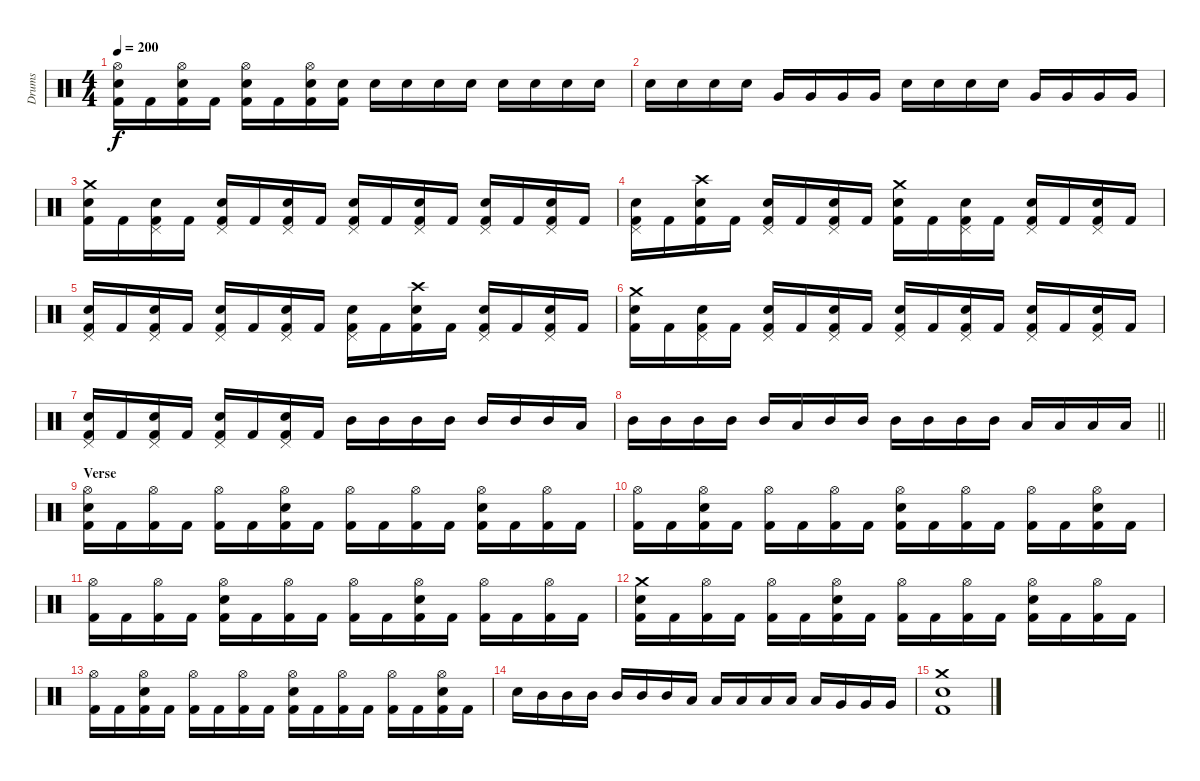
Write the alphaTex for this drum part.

\track ("Drums" "Drums") {instrument percussion}
\staff {score}
\articulation defaults
\ts (4 4)
\tempo 200
\clef neutral
\ks c
("Hi-Hat (open)" "Electric Snare (hit)" "Kick (hit) 2").16{dy f} "Kick (hit) 2".16 ("Hi-Hat (open)" "Electric Snare (hit)" "Kick (hit) 2").16 "Kick (hit) 2".16 ("Hi-Hat (open)" "Electric Snare (hit)" "Kick (hit) 2").16 "Kick (hit) 2".16 ("Hi-Hat (open)" "Electric Snare (hit)" "Kick (hit) 2").16 ("Electric Snare (hit)" "Kick (hit) 2").16 "Electric Snare (hit)".16 "Electric Snare (hit)".16 "Electric Snare (hit)".16 "Electric Snare (hit)".16 "Electric Snare (hit)".16 "Electric Snare (hit)".16 "Electric Snare (hit)".16 "Electric Snare (hit)".16 |
"Electric Snare (hit)".16 "Electric Snare (hit)".16 "Electric Snare (hit)".16 "Electric Snare (hit)".16 "Very Low Tom (hit)".16 "Very Low Tom (hit)".16 "Very Low Tom (hit)".16 "Very Low Tom (hit)".16 "Electric Snare (hit)".16 "Electric Snare (hit)".16 "Electric Snare (hit)".16 "Electric Snare (hit)".16 "Very Low Tom (hit)".16 "Very Low Tom (hit)".16 "Very Low Tom (hit)".16 "Very Low Tom (hit)".16 |
("Crash medium (hit)" "Electric Snare (hit)" "Kick (hit) 2").16 "Kick (hit) 2".16 ("Pedal Hi-Hat (hit)" "Electric Snare (hit)" "Kick (hit) 2").16 "Kick (hit) 2".16 ("Pedal Hi-Hat (hit)" "Electric Snare (hit)" "Kick (hit) 2").16 "Kick (hit) 2".16 ("Pedal Hi-Hat (hit)" "Electric Snare (hit)" "Kick (hit) 2").16 "Kick (hit) 2".16 ("Pedal Hi-Hat (hit)" "Electric Snare (hit)" "Kick (hit) 2").16 "Kick (hit) 2".16 ("Pedal Hi-Hat (hit)" "Electric Snare (hit)" "Kick (hit) 2").16 "Kick (hit) 2".16 ("Pedal Hi-Hat (hit)" "Electric Snare (hit)" "Kick (hit) 2").16 "Kick (hit) 2".16 ("Pedal Hi-Hat (hit)" "Electric Snare (hit)" "Kick (hit) 2").16 "Kick (hit) 2".16 |
("Pedal Hi-Hat (hit)" "Electric Snare (hit)" "Kick (hit) 2").16 "Kick (hit) 2".16 ("Crash high (hit)" "Electric Snare (hit)" "Kick (hit) 2").16 "Kick (hit) 2".16 ("Pedal Hi-Hat (hit)" "Electric Snare (hit)" "Kick (hit) 2").16 "Kick (hit) 2".16 ("Pedal Hi-Hat (hit)" "Electric Snare (hit)" "Kick (hit) 2").16 "Kick (hit) 2".16 ("Crash medium (hit)" "Electric Snare (hit)" "Kick (hit) 2").16 "Kick (hit) 2".16 ("Pedal Hi-Hat (hit)" "Electric Snare (hit)" "Kick (hit) 2").16 "Kick (hit) 2".16 ("Pedal Hi-Hat (hit)" "Electric Snare (hit)" "Kick (hit) 2").16 "Kick (hit) 2".16 ("Pedal Hi-Hat (hit)" "Electric Snare (hit)" "Kick (hit) 2").16 "Kick (hit) 2".16 |
("Pedal Hi-Hat (hit)" "Electric Snare (hit)" "Kick (hit) 2").16 "Kick (hit) 2".16 ("Pedal Hi-Hat (hit)" "Electric Snare (hit)" "Kick (hit) 2").16 "Kick (hit) 2".16 ("Pedal Hi-Hat (hit)" "Electric Snare (hit)" "Kick (hit) 2").16 "Kick (hit) 2".16 ("Pedal Hi-Hat (hit)" "Electric Snare (hit)" "Kick (hit) 2").16 "Kick (hit) 2".16 ("Pedal Hi-Hat (hit)" "Electric Snare (hit)" "Kick (hit) 2").16 "Kick (hit) 2".16 ("Crash high (hit)" "Electric Snare (hit)" "Kick (hit) 2").16 "Kick (hit) 2".16 ("Pedal Hi-Hat (hit)" "Electric Snare (hit)" "Kick (hit) 2").16 "Kick (hit) 2".16 ("Pedal Hi-Hat (hit)" "Electric Snare (hit)" "Kick (hit) 2").16 "Kick (hit) 2".16 |
("Crash medium (hit)" "Electric Snare (hit)" "Kick (hit) 2").16 "Kick (hit) 2".16 ("Pedal Hi-Hat (hit)" "Electric Snare (hit)" "Kick (hit) 2").16 "Kick (hit) 2".16 ("Pedal Hi-Hat (hit)" "Electric Snare (hit)" "Kick (hit) 2").16 "Kick (hit) 2".16 ("Pedal Hi-Hat (hit)" "Electric Snare (hit)" "Kick (hit) 2").16 "Kick (hit) 2".16 ("Pedal Hi-Hat (hit)" "Electric Snare (hit)" "Kick (hit) 2").16 "Kick (hit) 2".16 ("Pedal Hi-Hat (hit)" "Electric Snare (hit)" "Kick (hit) 2").16 "Kick (hit) 2".16 ("Pedal Hi-Hat (hit)" "Electric Snare (hit)" "Kick (hit) 2").16 "Kick (hit) 2".16 ("Pedal Hi-Hat (hit)" "Electric Snare (hit)" "Kick (hit) 2").16 "Kick (hit) 2".16 |
("Pedal Hi-Hat (hit)" "Electric Snare (hit)" "Kick (hit) 2").16 "Kick (hit) 2".16 ("Pedal Hi-Hat (hit)" "Electric Snare (hit)" "Kick (hit) 2").16 "Kick (hit) 2".16 ("Pedal Hi-Hat (hit)" "Electric Snare (hit)" "Kick (hit) 2").16 "Kick (hit) 2".16 ("Pedal Hi-Hat (hit)" "Electric Snare (hit)" "Kick (hit) 2").16 "Kick (hit) 2".16 "Mid Tom (hit)".16 "Mid Tom (hit)".16 "Mid Tom (hit)".16 "Mid Tom (hit)".16 "Mid Tom (hit)".16 "Mid Tom (hit)".16 "Mid Tom (hit)".16 "Low Tom (hit)".16 |
\barLineRight lightlight "Mid Tom (hit)".16 "Mid Tom (hit)".16 "Mid Tom (hit)".16 "Mid Tom (hit)".16 "Mid Tom (hit)".16 "Low Tom (hit)".16 "Mid Tom (hit)".16 "Mid Tom (hit)".16 "Mid Tom (hit)".16 "Mid Tom (hit)".16 "Mid Tom (hit)".16 "Mid Tom (hit)".16 "Low Tom (hit)".16 "Low Tom (hit)".16 "Low Tom (hit)".16 "Low Tom (hit)".16
|
\section ("" "Verse")
("Hi-Hat (open)" "Electric Snare (hit)" "Kick (hit) 2").16 "Kick (hit) 2".16 ("Hi-Hat (open)" "Kick (hit) 2").16 "Kick (hit) 2".16 ("Hi-Hat (open)" "Kick (hit) 2").16 "Kick (hit) 2".16 ("Hi-Hat (open)" "Electric Snare (hit)" "Kick (hit) 2").16 "Kick (hit) 2".16 ("Hi-Hat (open)" "Kick (hit) 2").16 "Kick (hit) 2".16 ("Hi-Hat (open)" "Kick (hit) 2").16 "Kick (hit) 2".16 ("Hi-Hat (open)" "Electric Snare (hit)" "Kick (hit) 2").16 "Kick (hit) 2".16 ("Hi-Hat (open)" "Kick (hit) 2").16 "Kick (hit) 2".16 |
("Hi-Hat (open)" "Kick (hit) 2").16 "Kick (hit) 2".16 ("Hi-Hat (open)" "Electric Snare (hit)" "Kick (hit) 2").16 "Kick (hit) 2".16 ("Hi-Hat (open)" "Kick (hit) 2").16 "Kick (hit) 2".16 ("Hi-Hat (open)" "Kick (hit) 2").16 "Kick (hit) 2".16 ("Hi-Hat (open)" "Electric Snare (hit)" "Kick (hit) 2").16 "Kick (hit) 2".16 ("Hi-Hat (open)" "Kick (hit) 2").16 "Kick (hit) 2".16 ("Hi-Hat (open)" "Kick (hit) 2").16 "Kick (hit) 2".16 ("Hi-Hat (open)" "Electric Snare (hit)" "Kick (hit) 2").16 "Kick (hit) 2".16 |
("Hi-Hat (open)" "Kick (hit) 2").16 "Kick (hit) 2".16 ("Hi-Hat (open)" "Kick (hit) 2").16 "Kick (hit) 2".16 ("Hi-Hat (open)" "Electric Snare (hit)" "Kick (hit) 2").16 "Kick (hit) 2".16 ("Hi-Hat (open)" "Kick (hit) 2").16 "Kick (hit) 2".16 ("Hi-Hat (open)" "Kick (hit) 2").16 "Kick (hit) 2".16 ("Hi-Hat (open)" "Electric Snare (hit)" "Kick (hit) 2").16 "Kick (hit) 2".16 ("Hi-Hat (open)" "Kick (hit) 2").16 "Kick (hit) 2".16 ("Hi-Hat (open)" "Kick (hit) 2").16 "Kick (hit) 2".16 |
("Crash medium (hit)" "Electric Snare (hit)" "Kick (hit) 2").16 "Kick (hit) 2".16 ("Hi-Hat (open)" "Kick (hit) 2").16 "Kick (hit) 2".16 ("Hi-Hat (open)" "Kick (hit) 2").16 "Kick (hit) 2".16 ("Hi-Hat (open)" "Electric Snare (hit)" "Kick (hit) 2").16 "Kick (hit) 2".16 ("Hi-Hat (open)" "Kick (hit) 2").16 "Kick (hit) 2".16 ("Hi-Hat (open)" "Kick (hit) 2").16 "Kick (hit) 2".16 ("Hi-Hat (open)" "Electric Snare (hit)" "Kick (hit) 2").16 "Kick (hit) 2".16 ("Hi-Hat (open)" "Kick (hit) 2").16 "Kick (hit) 2".16 |
("Hi-Hat (open)" "Kick (hit) 2").16 "Kick (hit) 2".16 ("Hi-Hat (open)" "Electric Snare (hit)" "Kick (hit) 2").16 "Kick (hit) 2".16 ("Hi-Hat (open)" "Kick (hit) 2").16 "Kick (hit) 2".16 ("Hi-Hat (open)" "Kick (hit) 2").16 "Kick (hit) 2".16 ("Hi-Hat (open)" "Electric Snare (hit)" "Kick (hit) 2").16 "Kick (hit) 2".16 ("Hi-Hat (open)" "Kick (hit) 2").16 "Kick (hit) 2".16 ("Hi-Hat (open)" "Kick (hit) 2").16 "Kick (hit) 2".16 ("Hi-Hat (open)" "Electric Snare (hit)" "Kick (hit) 2").16 "Kick (hit) 2".16 |
"Electric Snare (hit)".16 "Mid Tom (hit)".16 "Mid Tom (hit)".16 "Mid Tom (hit)".16 "Mid Tom (hit)".16 "Mid Tom (hit)".16 "Mid Tom (hit)".16 "Low Tom (hit)".16 "Low Tom (hit)".16 "Low Tom (hit)".16 "Low Tom (hit)".16 "Low Tom (hit)".16 "Low Tom (hit)".16 "Very Low Tom (hit)".16 "Very Low Tom (hit)".16 "Very Low Tom (hit)".16 |
("Crash medium (hit)" "Electric Snare (hit)" "Kick (hit) 2").1
